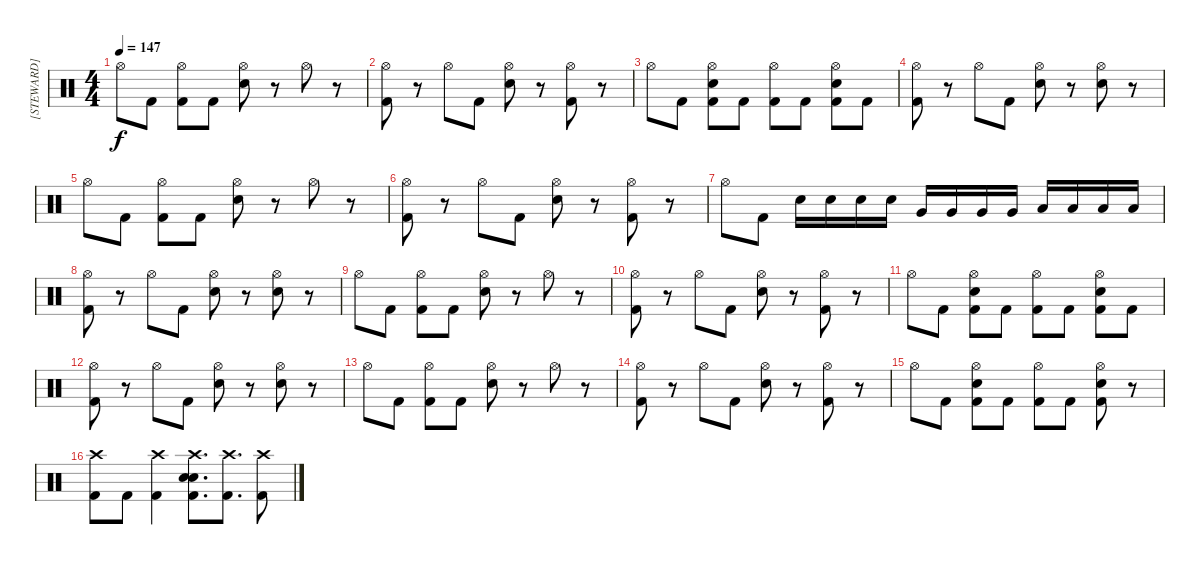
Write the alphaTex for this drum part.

\track ("[STEWARD]" "[STEWARD]") {instrument percussion}
\staff {score}
\articulation defaults
\ts (4 4)
\tempo 147
\clef neutral
\ks c "Hi-Hat (open)".8{dy f} "Kick (hit) 2".8
("Hi-Hat (open)" "Kick (hit) 2").8 "Kick (hit) 2".8 ("Hi-Hat (open)" "Electric Snare (hit)").8 r.8 "Hi-Hat (open)".8 r.8 |
("Hi-Hat (open)" "Kick (hit) 2").8 r.8 "Hi-Hat (open)".8 "Kick (hit) 2".8 ("Hi-Hat (open)" "Snare (hit) 2").8 r.8 ("Hi-Hat (open)" "Kick (hit) 2").8 r.8 |
"Hi-Hat (open)".8 "Kick (hit) 2".8 ("Hi-Hat (open)" "Snare (hit) 2" "Kick (hit) 2").8 "Kick (hit) 2".8 ("Hi-Hat (open)" "Kick (hit) 2").8 "Kick (hit) 2".8 ("Hi-Hat (open)" "Snare (hit) 2" "Kick (hit) 2").8 "Kick (hit) 2".8 |
("Hi-Hat (open)" "Kick (hit) 2").8 r.8 "Hi-Hat (open)".8 "Kick (hit) 2".8 ("Hi-Hat (open)" "Snare (hit) 2").8 r.8 ("Hi-Hat (open)" "Snare (hit) 2").8 r.8 |
"Hi-Hat (open)".8 "Kick (hit) 2".8 ("Hi-Hat (open)" "Kick (hit) 2").8 "Kick (hit) 2".8 ("Hi-Hat (open)" "Electric Snare (hit)").8 r.8 "Hi-Hat (open)".8 r.8 |
("Hi-Hat (open)" "Kick (hit) 2").8 r.8 "Hi-Hat (open)".8 "Kick (hit) 2".8 ("Hi-Hat (open)" "Snare (hit) 2").8 r.8 ("Hi-Hat (open)" "Kick (hit) 2").8 r.8 |
"Hi-Hat (open)".8 "Kick (hit) 2".8 "Snare (hit) 2".16 "Snare (hit) 2".16 "Snare (hit) 2".16 "Snare (hit) 2".16 "Very Low Tom (hit)".16 "Very Low Tom (hit)".16 "Very Low Tom (hit)".16 "Very Low Tom (hit)".16 "Low Tom (hit)".16 "Low Tom (hit)".16 "Low Tom (hit)".16 "Low Tom (hit)".16 |
("Hi-Hat (open)" "Kick (hit) 2").8 r.8 "Hi-Hat (open)".8 "Kick (hit) 2".8 ("Hi-Hat (open)" "Snare (hit) 2").8 r.8 ("Hi-Hat (open)" "Snare (hit) 2").8 r.8 |
"Hi-Hat (open)".8 "Kick (hit) 2".8 ("Hi-Hat (open)" "Kick (hit) 2").8 "Kick (hit) 2".8 ("Hi-Hat (open)" "Electric Snare (hit)").8 r.8 "Hi-Hat (open)".8 r.8 |
("Hi-Hat (open)" "Kick (hit) 2").8 r.8 "Hi-Hat (open)".8 "Kick (hit) 2".8 ("Hi-Hat (open)" "Snare (hit) 2").8 r.8 ("Hi-Hat (open)" "Kick (hit) 2").8 r.8 |
"Hi-Hat (open)".8 "Kick (hit) 2".8 ("Hi-Hat (open)" "Snare (hit) 2" "Kick (hit) 2").8 "Kick (hit) 2".8 ("Hi-Hat (open)" "Kick (hit) 2").8 "Kick (hit) 2".8 ("Hi-Hat (open)" "Snare (hit) 2" "Kick (hit) 2").8 "Kick (hit) 2".8 |
("Hi-Hat (open)" "Kick (hit) 2").8 r.8 "Hi-Hat (open)".8 "Kick (hit) 2".8 ("Hi-Hat (open)" "Snare (hit) 2").8 r.8 ("Hi-Hat (open)" "Snare (hit) 2").8 r.8 |
"Hi-Hat (open)".8 "Kick (hit) 2".8 ("Hi-Hat (open)" "Kick (hit) 2").8 "Kick (hit) 2".8 ("Hi-Hat (open)" "Electric Snare (hit)").8 r.8 "Hi-Hat (open)".8 r.8 |
("Hi-Hat (open)" "Kick (hit) 2").8 r.8 "Hi-Hat (open)".8 "Kick (hit) 2".8 ("Hi-Hat (open)" "Snare (hit) 2").8 r.8 ("Hi-Hat (open)" "Kick (hit) 2").8 r.8 |
"Hi-Hat (open)".8 "Kick (hit) 2".8 ("Hi-Hat (open)" "Snare (hit) 2" "Kick (hit) 2").8 "Kick (hit) 2".8 ("Hi-Hat (open)" "Kick (hit) 2").8 "Kick (hit) 2".8 ("Hi-Hat (open)" "Snare (hit) 2" "Kick (hit) 2").8 r.8 |
("Crash high (hit)" "Kick (hit) 2").8 "Kick (hit) 2".8 ("Crash high (hit)" "Kick (hit) 2").4 ("Crash high (hit)" "Electric Snare (hit)" "Snare (hit) 2" "Kick (hit) 2").8{d} ("Crash high (hit)" "Kick (hit) 2").8{d} ("Crash high (hit)" "Kick (hit) 2").8
